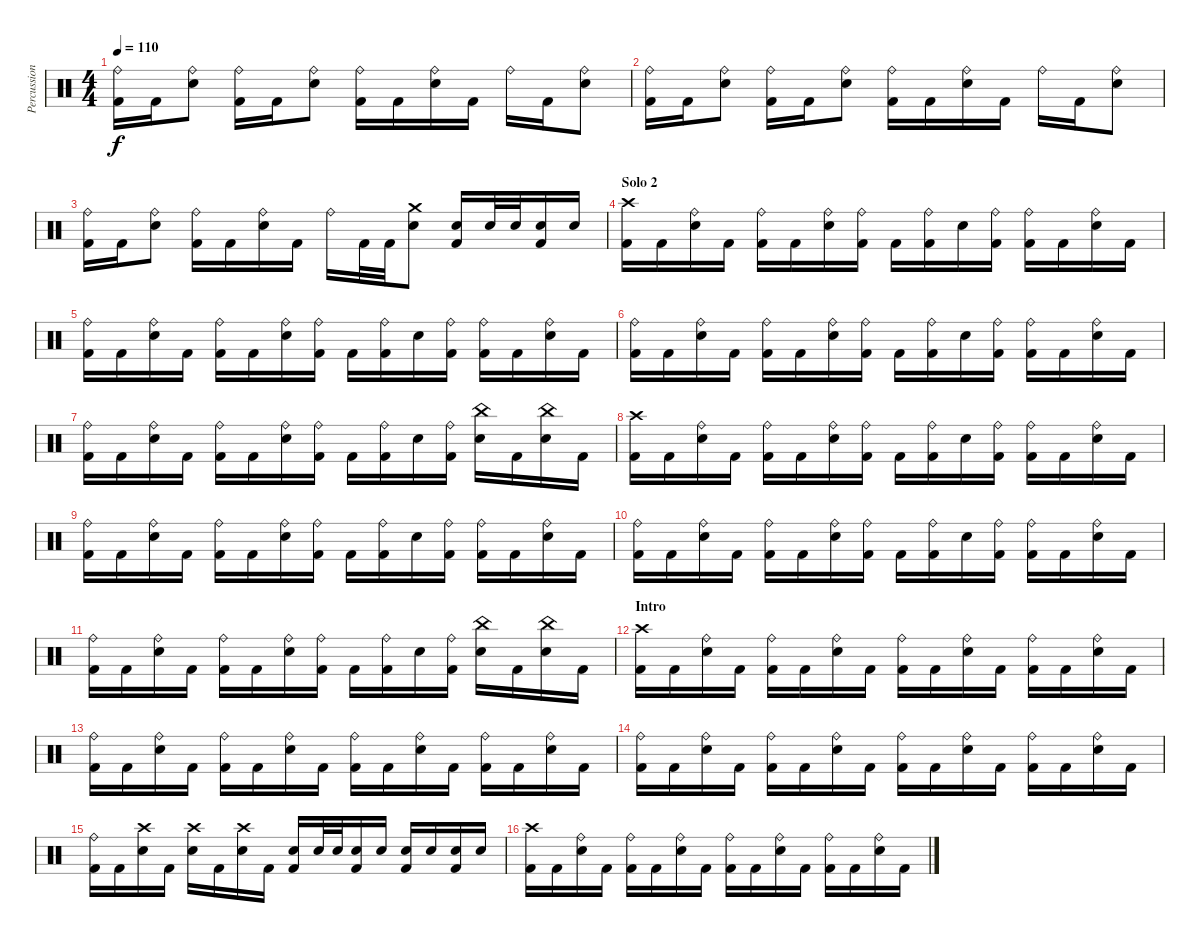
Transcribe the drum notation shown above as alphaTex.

\track ("Percussion" "Percussion") {instrument percussion}
\staff {score}
\articulation defaults
\ts (4 4)
\tempo 110
\clef neutral
\ks c
("Kick (hit) 2" "Ride (bell)").16{dy f} "Kick (hit) 2".16 ("Electric Snare (hit)" "Ride (bell)").8 ("Kick (hit) 2" "Ride (bell)").16 "Kick (hit) 2".16 ("Electric Snare (hit)" "Ride (bell)").8 ("Kick (hit) 2" "Ride (bell)").16 "Kick (hit) 2".16 ("Electric Snare (hit)" "Ride (bell)").16 "Kick (hit) 2".16 "Ride (bell)".16 "Kick (hit) 2".16 ("Electric Snare (hit)" "Ride (bell)").8 |
("Kick (hit) 2" "Ride (bell)").16 "Kick (hit) 2".16 ("Electric Snare (hit)" "Ride (bell)").8 ("Kick (hit) 2" "Ride (bell)").16 "Kick (hit) 2".16 ("Electric Snare (hit)" "Ride (bell)").8 ("Kick (hit) 2" "Ride (bell)").16 "Kick (hit) 2".16 ("Electric Snare (hit)" "Ride (bell)").16 "Kick (hit) 2".16 "Ride (bell)".16 "Kick (hit) 2".16 ("Electric Snare (hit)" "Ride (bell)").8 |
("Kick (hit) 2" "Ride (bell)").16 "Kick (hit) 2".16 ("Electric Snare (hit)" "Ride (bell)").8 ("Kick (hit) 2" "Ride (bell)").16 "Kick (hit) 2".16 ("Electric Snare (hit)" "Ride (bell)").16 "Kick (hit) 2".16 "Ride (bell)".16 "Kick (hit) 2".32 "Kick (hit) 2".32 ("Electric Snare (hit)" "Crash medium (hit)").8 ("Electric Snare (hit)" "Kick (hit) 2").16 "Electric Snare (hit)".32 "Electric Snare (hit)".32 ("Electric Snare (hit)" "Kick (hit) 2").16 "Electric Snare (hit)".16 |
\section ("" "Solo 2")
("Kick (hit) 2" "Crash high (hit)").16 "Kick (hit) 2".16 ("Electric Snare (hit)" "Ride (bell)").16 "Kick (hit) 2".16 ("Kick (hit) 2" "Ride (bell)").16 "Kick (hit) 2".16 ("Electric Snare (hit)" "Ride (bell)").16 ("Kick (hit) 2" "Ride (bell)").16 "Kick (hit) 2".16 ("Kick (hit) 2" "Ride (bell)").16 "Electric Snare (hit)".16 ("Kick (hit) 2" "Ride (bell)").16 ("Kick (hit) 2" "Ride (bell)").16 "Kick (hit) 2".16 ("Electric Snare (hit)" "Ride (bell)").16 "Kick (hit) 2".16 |
("Kick (hit) 2" "Ride (bell)").16 "Kick (hit) 2".16 ("Electric Snare (hit)" "Ride (bell)").16 "Kick (hit) 2".16 ("Kick (hit) 2" "Ride (bell)").16 "Kick (hit) 2".16 ("Electric Snare (hit)" "Ride (bell)").16 ("Kick (hit) 2" "Ride (bell)").16 "Kick (hit) 2".16 ("Kick (hit) 2" "Ride (bell)").16 "Electric Snare (hit)".16 ("Kick (hit) 2" "Ride (bell)").16 ("Kick (hit) 2" "Ride (bell)").16 "Kick (hit) 2".16 ("Electric Snare (hit)" "Ride (bell)").16 "Kick (hit) 2".16 |
("Kick (hit) 2" "Ride (bell)").16 "Kick (hit) 2".16 ("Electric Snare (hit)" "Ride (bell)").16 "Kick (hit) 2".16 ("Kick (hit) 2" "Ride (bell)").16 "Kick (hit) 2".16 ("Electric Snare (hit)" "Ride (bell)").16 ("Kick (hit) 2" "Ride (bell)").16 "Kick (hit) 2".16 ("Kick (hit) 2" "Ride (bell)").16 "Electric Snare (hit)".16 ("Kick (hit) 2" "Ride (bell)").16 ("Kick (hit) 2" "Ride (bell)").16 "Kick (hit) 2".16 ("Electric Snare (hit)" "Ride (bell)").16 "Kick (hit) 2".16 |
("Kick (hit) 2" "Ride (bell)").16 "Kick (hit) 2".16 ("Electric Snare (hit)" "Ride (bell)").16 "Kick (hit) 2".16 ("Kick (hit) 2" "Ride (bell)").16 "Kick (hit) 2".16 ("Electric Snare (hit)" "Ride (bell)").16 ("Kick (hit) 2" "Ride (bell)").16 "Kick (hit) 2".16 ("Kick (hit) 2" "Ride (bell)").16 "Electric Snare (hit)".16 ("Kick (hit) 2" "Ride (bell)").16 ("Electric Snare (hit)" "China (hit)").16 "Kick (hit) 2".16 ("Electric Snare (hit)" "China (hit)").16 "Kick (hit) 2".16 |
("Kick (hit) 2" "Crash high (hit)").16 "Kick (hit) 2".16 ("Electric Snare (hit)" "Ride (bell)").16 "Kick (hit) 2".16 ("Kick (hit) 2" "Ride (bell)").16 "Kick (hit) 2".16 ("Electric Snare (hit)" "Ride (bell)").16 ("Kick (hit) 2" "Ride (bell)").16 "Kick (hit) 2".16 ("Kick (hit) 2" "Ride (bell)").16 "Electric Snare (hit)".16 ("Kick (hit) 2" "Ride (bell)").16 ("Kick (hit) 2" "Ride (bell)").16 "Kick (hit) 2".16 ("Electric Snare (hit)" "Ride (bell)").16 "Kick (hit) 2".16 |
("Kick (hit) 2" "Ride (bell)").16 "Kick (hit) 2".16 ("Electric Snare (hit)" "Ride (bell)").16 "Kick (hit) 2".16 ("Kick (hit) 2" "Ride (bell)").16 "Kick (hit) 2".16 ("Electric Snare (hit)" "Ride (bell)").16 ("Kick (hit) 2" "Ride (bell)").16 "Kick (hit) 2".16 ("Kick (hit) 2" "Ride (bell)").16 "Electric Snare (hit)".16 ("Kick (hit) 2" "Ride (bell)").16 ("Kick (hit) 2" "Ride (bell)").16 "Kick (hit) 2".16 ("Electric Snare (hit)" "Ride (bell)").16 "Kick (hit) 2".16 |
("Kick (hit) 2" "Ride (bell)").16 "Kick (hit) 2".16 ("Electric Snare (hit)" "Ride (bell)").16 "Kick (hit) 2".16 ("Kick (hit) 2" "Ride (bell)").16 "Kick (hit) 2".16 ("Electric Snare (hit)" "Ride (bell)").16 ("Kick (hit) 2" "Ride (bell)").16 "Kick (hit) 2".16 ("Kick (hit) 2" "Ride (bell)").16 "Electric Snare (hit)".16 ("Kick (hit) 2" "Ride (bell)").16 ("Kick (hit) 2" "Ride (bell)").16 "Kick (hit) 2".16 ("Electric Snare (hit)" "Ride (bell)").16 "Kick (hit) 2".16 |
("Kick (hit) 2" "Ride (bell)").16 "Kick (hit) 2".16 ("Electric Snare (hit)" "Ride (bell)").16 "Kick (hit) 2".16 ("Kick (hit) 2" "Ride (bell)").16 "Kick (hit) 2".16 ("Electric Snare (hit)" "Ride (bell)").16 ("Kick (hit) 2" "Ride (bell)").16 "Kick (hit) 2".16 ("Kick (hit) 2" "Ride (bell)").16 "Electric Snare (hit)".16 ("Kick (hit) 2" "Ride (bell)").16 ("Electric Snare (hit)" "China (hit)").16 "Kick (hit) 2".16 ("Electric Snare (hit)" "China (hit)").16 "Kick (hit) 2".16 |
\section ("" "Intro")
("Kick (hit) 2" "Crash high (hit)").16 "Kick (hit) 2".16 ("Electric Snare (hit)" "Ride (bell)").16 "Kick (hit) 2".16 ("Kick (hit) 2" "Ride (bell)").16 "Kick (hit) 2".16 ("Electric Snare (hit)" "Ride (bell)").16 "Kick (hit) 2".16 ("Kick (hit) 2" "Ride (bell)").16 "Kick (hit) 2".16 ("Electric Snare (hit)" "Ride (bell)").16 "Kick (hit) 2".16 ("Kick (hit) 2" "Ride (bell)").16 "Kick (hit) 2".16 ("Electric Snare (hit)" "Ride (bell)").16 "Kick (hit) 2".16 |
("Kick (hit) 2" "Ride (bell)").16 "Kick (hit) 2".16 ("Electric Snare (hit)" "Ride (bell)").16 "Kick (hit) 2".16 ("Kick (hit) 2" "Ride (bell)").16 "Kick (hit) 2".16 ("Electric Snare (hit)" "Ride (bell)").16 "Kick (hit) 2".16 ("Kick (hit) 2" "Ride (bell)").16 "Kick (hit) 2".16 ("Electric Snare (hit)" "Ride (bell)").16 "Kick (hit) 2".16 ("Kick (hit) 2" "Ride (bell)").16 "Kick (hit) 2".16 ("Electric Snare (hit)" "Ride (bell)").16 "Kick (hit) 2".16 |
("Kick (hit) 2" "Ride (bell)").16 "Kick (hit) 2".16 ("Electric Snare (hit)" "Ride (bell)").16 "Kick (hit) 2".16 ("Kick (hit) 2" "Ride (bell)").16 "Kick (hit) 2".16 ("Electric Snare (hit)" "Ride (bell)").16 "Kick (hit) 2".16 ("Kick (hit) 2" "Ride (bell)").16 "Kick (hit) 2".16 ("Electric Snare (hit)" "Ride (bell)").16 "Kick (hit) 2".16 ("Kick (hit) 2" "Ride (bell)").16 "Kick (hit) 2".16 ("Electric Snare (hit)" "Ride (bell)").16 "Kick (hit) 2".16 |
("Kick (hit) 2" "Ride (bell)").16 "Kick (hit) 2".16 ("Electric Snare (hit)" "Crash high (hit)").16 "Kick (hit) 2".16 ("Electric Snare (hit)" "Crash high (hit)").16 "Kick (hit) 2".16 ("Electric Snare (hit)" "Crash high (hit)").16 "Kick (hit) 2".16 ("Electric Snare (hit)" "Kick (hit) 2").16 "Electric Snare (hit)".32 "Electric Snare (hit)".32 ("Electric Snare (hit)" "Kick (hit) 2").16 "Electric Snare (hit)".16 ("Electric Snare (hit)" "Kick (hit) 2").16 "Electric Snare (hit)".16 ("Electric Snare (hit)" "Kick (hit) 2").16 "Electric Snare (hit)".16 |
("Kick (hit) 2" "Crash high (hit)").16 "Kick (hit) 2".16 ("Electric Snare (hit)" "Ride (bell)").16 "Kick (hit) 2".16 ("Kick (hit) 2" "Ride (bell)").16 "Kick (hit) 2".16 ("Electric Snare (hit)" "Ride (bell)").16 "Kick (hit) 2".16 ("Kick (hit) 2" "Ride (bell)").16 "Kick (hit) 2".16 ("Electric Snare (hit)" "Ride (bell)").16 "Kick (hit) 2".16 ("Kick (hit) 2" "Ride (bell)").16 "Kick (hit) 2".16 ("Electric Snare (hit)" "Ride (bell)").16 "Kick (hit) 2".16
